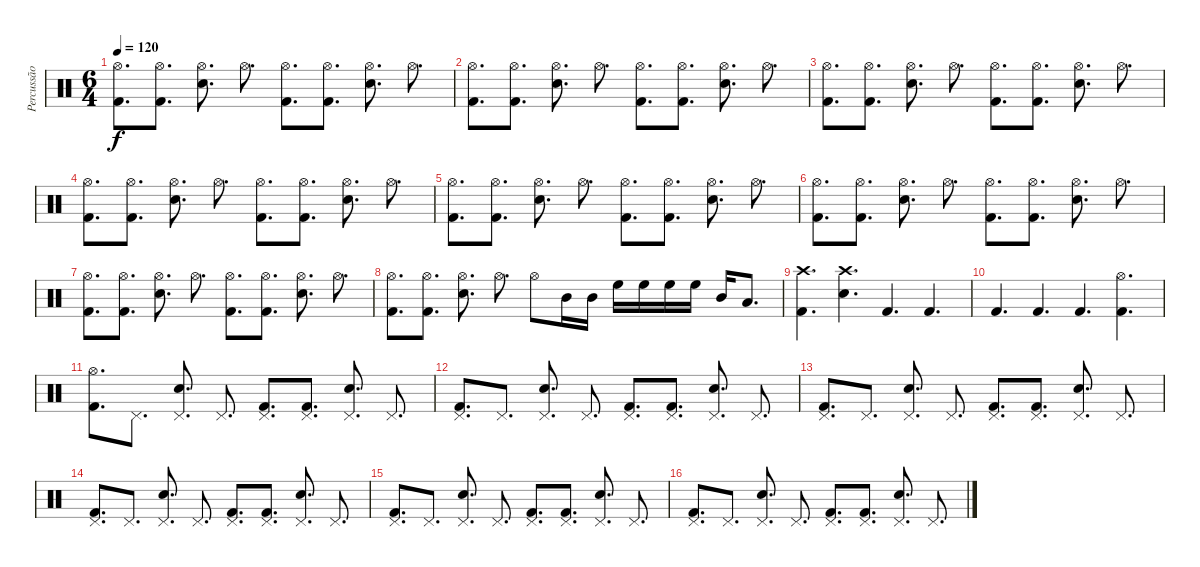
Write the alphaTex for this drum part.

\track ("Percussão" "Percussão") {solo instrument percussion}
\staff {score}
\articulation defaults
\ts (6 4)
\tempo 120
\clef neutral
\ks c
("Kick (hit) 2" "Hi-Hat (open)").8{d dy f} ("Kick (hit) 2" "Hi-Hat (open)").8{d} ("Snare (hit) 2" "Hi-Hat (open)").8{d} "Hi-Hat (open)".8{d} ("Kick (hit) 2" "Hi-Hat (open)").8{d} ("Kick (hit) 2" "Hi-Hat (open)").8{d} ("Snare (hit) 2" "Hi-Hat (open)").8{d} "Hi-Hat (open)".8{d} |
("Kick (hit) 2" "Hi-Hat (open)").8{d} ("Kick (hit) 2" "Hi-Hat (open)").8{d} ("Snare (hit) 2" "Hi-Hat (open)").8{d} "Hi-Hat (open)".8{d} ("Kick (hit) 2" "Hi-Hat (open)").8{d} ("Kick (hit) 2" "Hi-Hat (open)").8{d} ("Snare (hit) 2" "Hi-Hat (open)").8{d} "Hi-Hat (open)".8{d} |
("Kick (hit) 2" "Hi-Hat (open)").8{d} ("Kick (hit) 2" "Hi-Hat (open)").8{d} ("Snare (hit) 2" "Hi-Hat (open)").8{d} "Hi-Hat (open)".8{d} ("Kick (hit) 2" "Hi-Hat (open)").8{d} ("Kick (hit) 2" "Hi-Hat (open)").8{d} ("Snare (hit) 2" "Hi-Hat (open)").8{d} "Hi-Hat (open)".8{d} |
("Kick (hit) 2" "Hi-Hat (open)").8{d} ("Kick (hit) 2" "Hi-Hat (open)").8{d} ("Snare (hit) 2" "Hi-Hat (open)").8{d} "Hi-Hat (open)".8{d} ("Kick (hit) 2" "Hi-Hat (open)").8{d} ("Kick (hit) 2" "Hi-Hat (open)").8{d} ("Snare (hit) 2" "Hi-Hat (open)").8{d} "Hi-Hat (open)".8{d} |
("Kick (hit) 2" "Hi-Hat (open)").8{d} ("Kick (hit) 2" "Hi-Hat (open)").8{d} ("Snare (hit) 2" "Hi-Hat (open)").8{d} "Hi-Hat (open)".8{d} ("Kick (hit) 2" "Hi-Hat (open)").8{d} ("Kick (hit) 2" "Hi-Hat (open)").8{d} ("Snare (hit) 2" "Hi-Hat (open)").8{d} "Hi-Hat (open)".8{d} |
("Kick (hit) 2" "Hi-Hat (open)").8{d} ("Kick (hit) 2" "Hi-Hat (open)").8{d} ("Snare (hit) 2" "Hi-Hat (open)").8{d} "Hi-Hat (open)".8{d} ("Kick (hit) 2" "Hi-Hat (open)").8{d} ("Kick (hit) 2" "Hi-Hat (open)").8{d} ("Snare (hit) 2" "Hi-Hat (open)").8{d} "Hi-Hat (open)".8{d} |
("Kick (hit) 2" "Hi-Hat (open)").8{d} ("Kick (hit) 2" "Hi-Hat (open)").8{d} ("Snare (hit) 2" "Hi-Hat (open)").8{d} "Hi-Hat (open)".8{d} ("Kick (hit) 2" "Hi-Hat (open)").8{d} ("Kick (hit) 2" "Hi-Hat (open)").8{d} ("Snare (hit) 2" "Hi-Hat (open)").8{d} "Hi-Hat (open)".8{d} |
("Kick (hit) 2" "Hi-Hat (open)").8{d} ("Kick (hit) 2" "Hi-Hat (open)").8{d} ("Snare (hit) 2" "Hi-Hat (open)").8{d} "Hi-Hat (open)".8{d} "Hi-Hat (open)".8 "Mid Tom (hit)".16 "Mid Tom (hit)".16 "High Floor Tom (hit)".16 "High Floor Tom (hit)".16 "High Floor Tom (hit)".16 "High Floor Tom (hit)".16 "Mid Tom (hit)".16 "Low Tom (hit)".8{d} |
("Kick (hit) 2" "Crash high (hit)").4{d} ("Snare (hit) 2" "Crash high (hit)").4{d} "Kick (hit) 2".4{d} "Kick (hit) 2".4{d} |
"Kick (hit) 2".4{d} "Kick (hit) 2".4{d} "Kick (hit) 2".4{d} ("Kick (hit) 2" "Hi-Hat (open)").4{d} |
("Kick (hit) 2" "Hi-Hat (open)").8{d} "Pedal Hi-Hat (hit)".8{d} ("Snare (hit) 2" "Pedal Hi-Hat (hit)").8{d} "Pedal Hi-Hat (hit)".8{d} ("Kick (hit) 2" "Pedal Hi-Hat (hit)").8{d} ("Kick (hit) 2" "Pedal Hi-Hat (hit)").8{d} ("Snare (hit) 2" "Pedal Hi-Hat (hit)").8{d} "Pedal Hi-Hat (hit)".8{d} |
("Kick (hit) 2" "Pedal Hi-Hat (hit)").8{d} "Pedal Hi-Hat (hit)".8{d} ("Snare (hit) 2" "Pedal Hi-Hat (hit)").8{d} "Pedal Hi-Hat (hit)".8{d} ("Kick (hit) 2" "Pedal Hi-Hat (hit)").8{d} ("Kick (hit) 2" "Pedal Hi-Hat (hit)").8{d} ("Snare (hit) 2" "Pedal Hi-Hat (hit)").8{d} "Pedal Hi-Hat (hit)".8{d} |
("Kick (hit) 2" "Pedal Hi-Hat (hit)").8{d} "Pedal Hi-Hat (hit)".8{d} ("Snare (hit) 2" "Pedal Hi-Hat (hit)").8{d} "Pedal Hi-Hat (hit)".8{d} ("Kick (hit) 2" "Pedal Hi-Hat (hit)").8{d} ("Kick (hit) 2" "Pedal Hi-Hat (hit)").8{d} ("Snare (hit) 2" "Pedal Hi-Hat (hit)").8{d} "Pedal Hi-Hat (hit)".8{d} |
("Kick (hit) 2" "Pedal Hi-Hat (hit)").8{d} "Pedal Hi-Hat (hit)".8{d} ("Snare (hit) 2" "Pedal Hi-Hat (hit)").8{d} "Pedal Hi-Hat (hit)".8{d} ("Kick (hit) 2" "Pedal Hi-Hat (hit)").8{d} ("Kick (hit) 2" "Pedal Hi-Hat (hit)").8{d} ("Snare (hit) 2" "Pedal Hi-Hat (hit)").8{d} "Pedal Hi-Hat (hit)".8{d} |
("Kick (hit) 2" "Pedal Hi-Hat (hit)").8{d} "Pedal Hi-Hat (hit)".8{d} ("Snare (hit) 2" "Pedal Hi-Hat (hit)").8{d} "Pedal Hi-Hat (hit)".8{d} ("Kick (hit) 2" "Pedal Hi-Hat (hit)").8{d} ("Kick (hit) 2" "Pedal Hi-Hat (hit)").8{d} ("Snare (hit) 2" "Pedal Hi-Hat (hit)").8{d} "Pedal Hi-Hat (hit)".8{d} |
("Kick (hit) 2" "Pedal Hi-Hat (hit)").8{d} "Pedal Hi-Hat (hit)".8{d} ("Snare (hit) 2" "Pedal Hi-Hat (hit)").8{d} "Pedal Hi-Hat (hit)".8{d} ("Kick (hit) 2" "Pedal Hi-Hat (hit)").8{d} ("Kick (hit) 2" "Pedal Hi-Hat (hit)").8{d} ("Snare (hit) 2" "Pedal Hi-Hat (hit)").8{d} "Pedal Hi-Hat (hit)".8{d}
